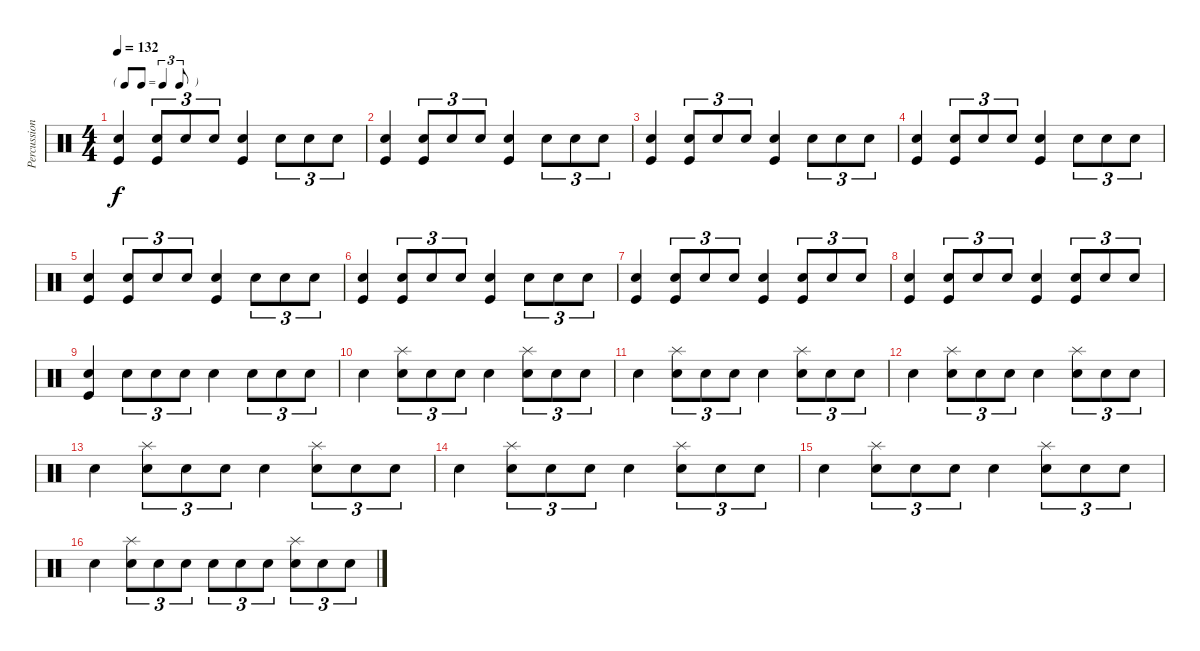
\track ("Percussions" "Percussion") {instrument percussion}
\staff {score}
\articulation defaults
\ts (4 4)
\tf triplet8th
\tempo 132
\clef neutral
\ks c
("Snare (hit) 2" "Kick (hit)").4{dy f} ("Snare (hit) 2" "Kick (hit)").8{tu (3 2)} "Snare (hit) 2".8{tu (3 2)} "Snare (hit) 2".8{tu (3 2)} ("Snare (hit) 2" "Kick (hit)").4 "Snare (hit) 2".8{tu (3 2)} "Snare (hit) 2".8{tu (3 2)} "Snare (hit) 2".8{tu (3 2)} |
("Snare (hit) 2" "Kick (hit)").4 ("Snare (hit) 2" "Kick (hit)").8{tu (3 2)} "Snare (hit) 2".8{tu (3 2)} "Snare (hit) 2".8{tu (3 2)} ("Snare (hit) 2" "Kick (hit)").4 "Snare (hit) 2".8{tu (3 2)} "Snare (hit) 2".8{tu (3 2)} "Snare (hit) 2".8{tu (3 2)} |
("Snare (hit) 2" "Kick (hit)").4 ("Snare (hit) 2" "Kick (hit)").8{tu (3 2)} "Snare (hit) 2".8{tu (3 2)} "Snare (hit) 2".8{tu (3 2)} ("Snare (hit) 2" "Kick (hit)").4 "Snare (hit) 2".8{tu (3 2)} "Snare (hit) 2".8{tu (3 2)} "Snare (hit) 2".8{tu (3 2)} |
("Snare (hit) 2" "Kick (hit)").4 ("Snare (hit) 2" "Kick (hit)").8{tu (3 2)} "Snare (hit) 2".8{tu (3 2)} "Snare (hit) 2".8{tu (3 2)} ("Snare (hit) 2" "Kick (hit)").4 "Snare (hit) 2".8{tu (3 2)} "Snare (hit) 2".8{tu (3 2)} "Snare (hit) 2".8{tu (3 2)} |
("Snare (hit) 2" "Kick (hit)").4 ("Snare (hit) 2" "Kick (hit)").8{tu (3 2)} "Snare (hit) 2".8{tu (3 2)} "Snare (hit) 2".8{tu (3 2)} ("Snare (hit) 2" "Kick (hit)").4 "Snare (hit) 2".8{tu (3 2)} "Snare (hit) 2".8{tu (3 2)} "Snare (hit) 2".8{tu (3 2)} |
("Snare (hit) 2" "Kick (hit)").4 ("Snare (hit) 2" "Kick (hit)").8{tu (3 2)} "Snare (hit) 2".8{tu (3 2)} "Snare (hit) 2".8{tu (3 2)} ("Snare (hit) 2" "Kick (hit)").4 "Snare (hit) 2".8{tu (3 2)} "Snare (hit) 2".8{tu (3 2)} "Snare (hit) 2".8{tu (3 2)} |
("Snare (hit) 2" "Kick (hit)").4 ("Snare (hit) 2" "Kick (hit)").8{tu (3 2)} "Snare (hit) 2".8{tu (3 2)} "Snare (hit) 2".8{tu (3 2)} ("Snare (hit) 2" "Kick (hit)").4 ("Snare (hit) 2" "Kick (hit)").8{tu (3 2)} "Snare (hit) 2".8{tu (3 2)} "Snare (hit) 2".8{tu (3 2)} |
("Snare (hit) 2" "Kick (hit)").4 ("Snare (hit) 2" "Kick (hit)").8{tu (3 2)} "Snare (hit) 2".8{tu (3 2)} "Snare (hit) 2".8{tu (3 2)} ("Snare (hit) 2" "Kick (hit)").4 ("Snare (hit) 2" "Kick (hit)").8{tu (3 2)} "Snare (hit) 2".8{tu (3 2)} "Snare (hit) 2".8{tu (3 2)} |
("Snare (hit) 2" "Kick (hit)").4 "Snare (hit) 2".8{tu (3 2)} "Snare (hit) 2".8{tu (3 2)} "Snare (hit) 2".8{tu (3 2)} "Snare (hit) 2".4 "Snare (hit) 2".8{tu (3 2)} "Snare (hit) 2".8{tu (3 2)} "Snare (hit) 2".8{tu (3 2)} |
"Snare (hit) 2".4 ("Snare (hit) 2" "Splash (hit)").8{tu (3 2)} "Snare (hit) 2".8{tu (3 2)} "Snare (hit) 2".8{tu (3 2)} "Snare (hit) 2".4 ("Snare (hit) 2" "Splash (hit)").8{tu (3 2)} "Snare (hit) 2".8{tu (3 2)} "Snare (hit) 2".8{tu (3 2)} |
"Snare (hit) 2".4 ("Snare (hit) 2" "Splash (hit)").8{tu (3 2)} "Snare (hit) 2".8{tu (3 2)} "Snare (hit) 2".8{tu (3 2)} "Snare (hit) 2".4 ("Snare (hit) 2" "Splash (hit)").8{tu (3 2)} "Snare (hit) 2".8{tu (3 2)} "Snare (hit) 2".8{tu (3 2)} |
"Snare (hit) 2".4 ("Snare (hit) 2" "Splash (hit)").8{tu (3 2)} "Snare (hit) 2".8{tu (3 2)} "Snare (hit) 2".8{tu (3 2)} "Snare (hit) 2".4 ("Snare (hit) 2" "Splash (hit)").8{tu (3 2)} "Snare (hit) 2".8{tu (3 2)} "Snare (hit) 2".8{tu (3 2)} |
"Snare (hit) 2".4 ("Snare (hit) 2" "Splash (hit)").8{tu (3 2)} "Snare (hit) 2".8{tu (3 2)} "Snare (hit) 2".8{tu (3 2)} "Snare (hit) 2".4 ("Snare (hit) 2" "Splash (hit)").8{tu (3 2)} "Snare (hit) 2".8{tu (3 2)} "Snare (hit) 2".8{tu (3 2)} |
"Snare (hit) 2".4 ("Snare (hit) 2" "Splash (hit)").8{tu (3 2)} "Snare (hit) 2".8{tu (3 2)} "Snare (hit) 2".8{tu (3 2)} "Snare (hit) 2".4 ("Snare (hit) 2" "Splash (hit)").8{tu (3 2)} "Snare (hit) 2".8{tu (3 2)} "Snare (hit) 2".8{tu (3 2)} |
"Snare (hit) 2".4 ("Snare (hit) 2" "Splash (hit)").8{tu (3 2)} "Snare (hit) 2".8{tu (3 2)} "Snare (hit) 2".8{tu (3 2)} "Snare (hit) 2".4 ("Snare (hit) 2" "Splash (hit)").8{tu (3 2)} "Snare (hit) 2".8{tu (3 2)} "Snare (hit) 2".8{tu (3 2)} |
"Snare (hit) 2".4 ("Snare (hit) 2" "Splash (hit)").8{tu (3 2)} "Snare (hit) 2".8{tu (3 2)} "Snare (hit) 2".8{tu (3 2)} "Snare (hit) 2".8{tu (3 2)} "Snare (hit) 2".8{tu (3 2)} "Snare (hit) 2".8{tu (3 2)} ("Snare (hit) 2" "Splash (hit)").8{tu (3 2)} "Snare (hit) 2".8{tu (3 2)} "Snare (hit) 2".8{tu (3 2)}
